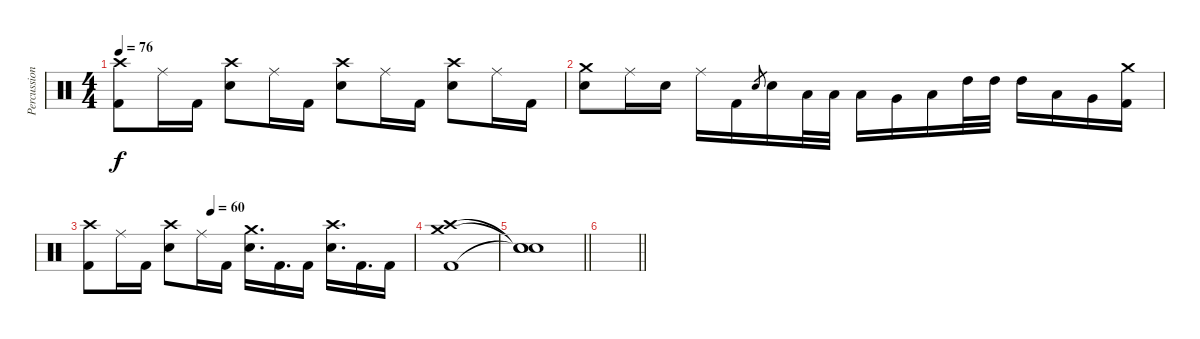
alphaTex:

\track ("Percussion" "Percussion") {instrument percussion}
\staff {score}
\articulation defaults
\ts (4 4)
\tempo 76
\clef neutral
\ks c
("Crash high (hit)" "Kick (hit) 2").8{dy f} "Ride (middle)".16 "Kick (hit) 2".16 ("Crash high (hit)" "Electric Snare (hit)").8 "Ride (middle)".16 "Kick (hit) 2".16 ("Crash high (hit)" "Electric Snare (hit)").8 "Ride (middle)".16 "Kick (hit) 2".16 ("Crash high (hit)" "Electric Snare (hit)").8 "Ride (middle)".16 "Kick (hit) 2".16 |
("Crash medium (hit)" "Electric Snare (hit)").8 "Ride (middle)".16 "Electric Snare (hit)".16 "Ride (middle)".16 "Kick (hit) 2".16 "Electric Snare (hit)".8{gr} "Electric Snare (hit)".16 "Low Tom (hit)".32 "Low Tom (hit)".32 "Low Tom (hit)".16 "Very Low Tom (hit)".16 "Low Floor Tom (hit)".16 "High Tom (hit)".32 "High Tom (hit)".32 "High Tom (hit)".16 "Low Tom (hit)".16 "Very Low Tom (hit)".16 ("Crash medium (hit)" "Kick (hit) 2").16 |
\tempo (60 0.375)
("Crash high (hit)" "Kick (hit) 2").8 "Ride (middle)".16 "Kick (hit) 2".16 ("Crash high (hit)" "Electric Snare (hit)").8 "Ride (middle)".16 "Kick (hit) 2".16 ("Crash medium (hit)" "Electric Snare (hit)").16{d} "Kick (hit) 2".16{d} "Kick (hit) 2".16 ("Crash high (hit)" "Electric Snare (hit)").16{d} "Kick (hit) 2".16{d} "Kick (hit) 2".16 |
("Crash medium (hit)" "Crash high (hit)" "Kick (hit) 2").1 |
\barLineRight lightlight
("Snare (hit)"{t} "Snare (hit)"{t} "Snare (hit)"{t}).1 |
\barLineRight lightlight
